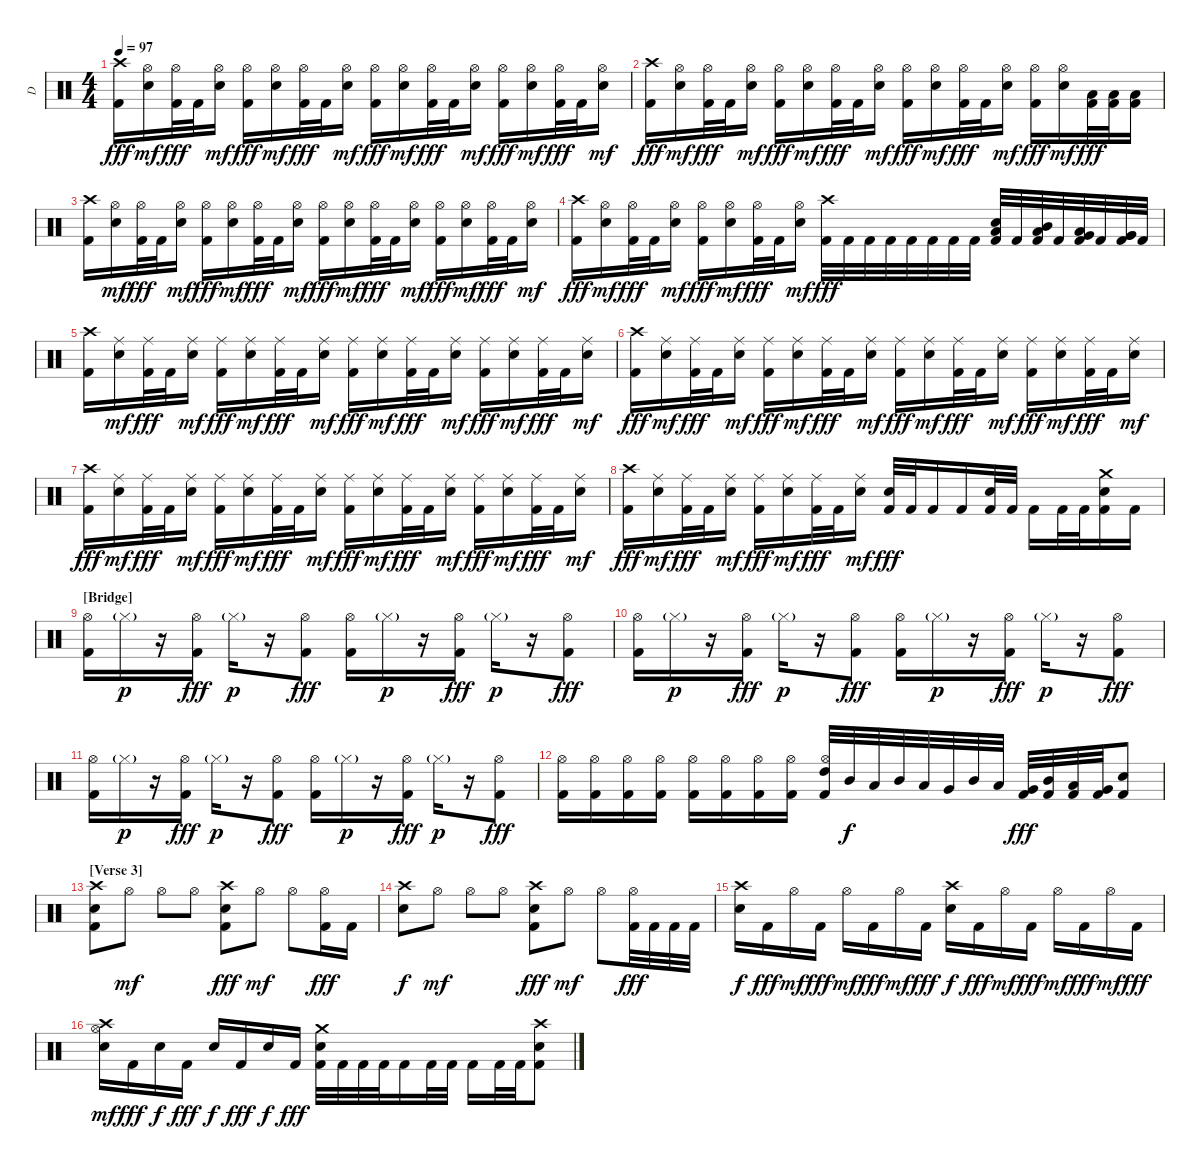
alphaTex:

\track ("D" "D") {instrument percussion}
\staff {score}
\articulation defaults
\ts (4 4)
\tempo 97
\clef neutral
\ks c
("Crash high (hit)" "Kick (hit) 2").16{dy fff} ("Hi-Hat (open)" "Snare (hit) 2").16{dy mf} ("Hi-Hat (open)" "Kick (hit) 2").32{dy fff} "Kick (hit) 2".32 ("Hi-Hat (open)" "Snare (hit) 2").16{dy mf} ("Hi-Hat (open)" "Kick (hit) 2").16{dy fff} ("Hi-Hat (open)" "Snare (hit) 2").16{dy mf} ("Hi-Hat (open)" "Kick (hit) 2").32{dy fff} "Kick (hit) 2".32 ("Hi-Hat (open)" "Snare (hit) 2").16{dy mf} ("Hi-Hat (open)" "Kick (hit) 2").16{dy fff} ("Hi-Hat (open)" "Snare (hit) 2").16{dy mf} ("Hi-Hat (open)" "Kick (hit) 2").32{dy fff} "Kick (hit) 2".32 ("Hi-Hat (open)" "Snare (hit) 2").16{dy mf} ("Hi-Hat (open)" "Kick (hit) 2").16{dy fff} ("Hi-Hat (open)" "Snare (hit) 2").16{dy mf} ("Hi-Hat (open)" "Kick (hit) 2").32{dy fff} "Kick (hit) 2".32 ("Hi-Hat (open)" "Snare (hit) 2").16{dy mf} |
("Crash high (hit)" "Kick (hit) 2").16{dy fff} ("Hi-Hat (open)" "Snare (hit) 2").16{dy mf} ("Hi-Hat (open)" "Kick (hit) 2").32{dy fff} "Kick (hit) 2".32 ("Hi-Hat (open)" "Snare (hit) 2").16{dy mf} ("Hi-Hat (open)" "Kick (hit) 2").16{dy fff} ("Hi-Hat (open)" "Snare (hit) 2").16{dy mf} ("Hi-Hat (open)" "Kick (hit) 2").32{dy fff} "Kick (hit) 2".32 ("Hi-Hat (open)" "Snare (hit) 2").16{dy mf} ("Hi-Hat (open)" "Kick (hit) 2").16{dy fff} ("Hi-Hat (open)" "Snare (hit) 2").16{dy mf} ("Hi-Hat (open)" "Kick (hit) 2").32{dy fff} "Kick (hit) 2".32 ("Hi-Hat (open)" "Snare (hit) 2").16{dy mf} ("Hi-Hat (open)" "Kick (hit) 2").16{dy fff} ("Hi-Hat (open)" "Snare (hit) 2").16{dy mf} ("Low Tom (hit)" "Kick (hit) 2").32{dy fff} ("Low Tom (hit)" "Kick (hit) 2").32 ("Low Tom (hit)" "Kick (hit) 2").16 |
("Crash high (hit)" "Kick (hit) 2").16 ("Hi-Hat (open)" "Snare (hit) 2").16{dy mf} ("Hi-Hat (open)" "Kick (hit) 2").32{dy fff} "Kick (hit) 2".32 ("Hi-Hat (open)" "Snare (hit) 2").16{dy mf} ("Hi-Hat (open)" "Kick (hit) 2").16{dy fff} ("Hi-Hat (open)" "Snare (hit) 2").16{dy mf} ("Hi-Hat (open)" "Kick (hit) 2").32{dy fff} "Kick (hit) 2".32 ("Hi-Hat (open)" "Snare (hit) 2").16{dy mf} ("Hi-Hat (open)" "Kick (hit) 2").16{dy fff} ("Hi-Hat (open)" "Snare (hit) 2").16{dy mf} ("Hi-Hat (open)" "Kick (hit) 2").32{dy fff} "Kick (hit) 2".32 ("Hi-Hat (open)" "Snare (hit) 2").16{dy mf} ("Hi-Hat (open)" "Kick (hit) 2").16{dy fff} ("Hi-Hat (open)" "Snare (hit) 2").16{dy mf} ("Hi-Hat (open)" "Kick (hit) 2").32{dy fff} "Kick (hit) 2".32 ("Hi-Hat (open)" "Snare (hit) 2").16{dy mf} |
("Crash high (hit)" "Kick (hit) 2").16{dy fff} ("Hi-Hat (open)" "Snare (hit) 2").16{dy mf} ("Hi-Hat (open)" "Kick (hit) 2").32{dy fff} "Kick (hit) 2".32 ("Hi-Hat (open)" "Snare (hit) 2").16{dy mf} ("Hi-Hat (open)" "Kick (hit) 2").16{dy fff} ("Hi-Hat (open)" "Snare (hit) 2").16{dy mf} ("Hi-Hat (open)" "Kick (hit) 2").32{dy fff} "Kick (hit) 2".32 ("Hi-Hat (open)" "Snare (hit) 2").16{dy mf} ("Crash high (hit)" "Kick (hit) 2").32{dy fff} "Kick (hit) 2".32 "Kick (hit) 2".32 "Kick (hit) 2".32 "Kick (hit) 2".32 "Kick (hit) 2".32 "Kick (hit) 2".32 "Kick (hit) 2".32 ("Low Tom (hit)" "Snare (hit) 2" "Kick (hit) 2").32 "Kick (hit) 2".32 ("Low Tom (hit)" "Mid Tom (hit)" "Kick (hit) 2").32 "Kick (hit) 2".32 ("Very Low Tom (hit)" "Low Tom (hit)" "Kick (hit) 2").32 "Kick (hit) 2".32 ("Very Low Tom (hit)" "Very Low Tom (hit)" "Kick (hit) 2").32 "Kick (hit) 2".32 |
\section ("" "")
("Crash high (hit)" "Kick (hit) 2").16 ("Ride (middle)" "Snare (hit) 2").16{dy mf} ("Ride (middle)" "Kick (hit) 2").32{dy fff} "Kick (hit) 2".32 ("Ride (middle)" "Snare (hit) 2").16{dy mf} ("Ride (middle)" "Kick (hit) 2").16{dy fff} ("Ride (middle)" "Snare (hit) 2").16{dy mf} ("Ride (middle)" "Kick (hit) 2").32{dy fff} "Kick (hit) 2".32 ("Ride (middle)" "Snare (hit) 2").16{dy mf} ("Ride (middle)" "Kick (hit) 2").16{dy fff} ("Ride (middle)" "Snare (hit) 2").16{dy mf} ("Ride (middle)" "Kick (hit) 2").32{dy fff} "Kick (hit) 2".32 ("Ride (middle)" "Snare (hit) 2").16{dy mf} ("Ride (middle)" "Kick (hit) 2").16{dy fff} ("Ride (middle)" "Snare (hit) 2").16{dy mf} ("Ride (middle)" "Kick (hit) 2").32{dy fff} "Kick (hit) 2".32 ("Ride (middle)" "Snare (hit) 2").16{dy mf} |
("Crash high (hit)" "Kick (hit) 2").16{dy fff} ("Ride (middle)" "Snare (hit) 2").16{dy mf} ("Ride (middle)" "Kick (hit) 2").32{dy fff} "Kick (hit) 2".32 ("Ride (middle)" "Snare (hit) 2").16{dy mf} ("Ride (middle)" "Kick (hit) 2").16{dy fff} ("Ride (middle)" "Snare (hit) 2").16{dy mf} ("Ride (middle)" "Kick (hit) 2").32{dy fff} "Kick (hit) 2".32 ("Ride (middle)" "Snare (hit) 2").16{dy mf} ("Ride (middle)" "Kick (hit) 2").16{dy fff} ("Ride (middle)" "Snare (hit) 2").16{dy mf} ("Ride (middle)" "Kick (hit) 2").32{dy fff} "Kick (hit) 2".32 ("Ride (middle)" "Snare (hit) 2").16{dy mf} ("Ride (middle)" "Kick (hit) 2").16{dy fff} ("Ride (middle)" "Snare (hit) 2").16{dy mf} ("Ride (middle)" "Kick (hit) 2").32{dy fff} "Kick (hit) 2".32 ("Ride (middle)" "Snare (hit) 2").16{dy mf} |
("Crash high (hit)" "Kick (hit) 2").16{dy fff} ("Ride (middle)" "Snare (hit) 2").16{dy mf} ("Ride (middle)" "Kick (hit) 2").32{dy fff} "Kick (hit) 2".32 ("Ride (middle)" "Snare (hit) 2").16{dy mf} ("Ride (middle)" "Kick (hit) 2").16{dy fff} ("Ride (middle)" "Snare (hit) 2").16{dy mf} ("Ride (middle)" "Kick (hit) 2").32{dy fff} "Kick (hit) 2".32 ("Ride (middle)" "Snare (hit) 2").16{dy mf} ("Ride (middle)" "Kick (hit) 2").16{dy fff} ("Ride (middle)" "Snare (hit) 2").16{dy mf} ("Ride (middle)" "Kick (hit) 2").32{dy fff} "Kick (hit) 2".32 ("Ride (middle)" "Snare (hit) 2").16{dy mf} ("Ride (middle)" "Kick (hit) 2").16{dy fff} ("Ride (middle)" "Snare (hit) 2").16{dy mf} ("Ride (middle)" "Kick (hit) 2").32{dy fff} "Kick (hit) 2".32 ("Ride (middle)" "Snare (hit) 2").16{dy mf} |
("Crash high (hit)" "Kick (hit) 2").16{dy fff} ("Ride (middle)" "Snare (hit) 2").16{dy mf} ("Ride (middle)" "Kick (hit) 2").32{dy fff} "Kick (hit) 2".32 ("Ride (middle)" "Snare (hit) 2").16{dy mf} ("Ride (middle)" "Kick (hit) 2").16{dy fff} ("Ride (middle)" "Snare (hit) 2").16{dy mf} ("Ride (middle)" "Kick (hit) 2").32{dy fff} "Kick (hit) 2".32 ("Ride (middle)" "Snare (hit) 2").16{dy mf} ("Snare (hit) 2" "Kick (hit) 2").32{dy fff} "Kick (hit) 2".32 "Kick (hit) 2".16 "Kick (hit) 2".16 ("Snare (hit) 2" "Kick (hit) 2").32 "Kick (hit) 2".32 "Kick (hit) 2".16 "Kick (hit) 2".32 "Kick (hit) 2".32 ("Crash medium (hit)" "Snare (hit) 2" "Kick (hit) 2").16 "Kick (hit) 2".16 |
\section ("" "[Bridge]")
("Hi-Hat (open)" "Kick (hit) 2").16 "Hi-Hat (closed)"{g}.16{dy p} r.16 ("Hi-Hat (open)" "Kick (hit) 2").16{dy fff} "Hi-Hat (closed)"{g}.16{dy p} r.16 ("Hi-Hat (open)" "Kick (hit) 2").8{dy fff} ("Hi-Hat (open)" "Kick (hit) 2").16 "Hi-Hat (closed)"{g}.16{dy p} r.16 ("Hi-Hat (open)" "Kick (hit) 2").16{dy fff} "Hi-Hat (closed)"{g}.16{dy p} r.16 ("Hi-Hat (open)" "Kick (hit) 2").8{dy fff} |
("Hi-Hat (open)" "Kick (hit) 2").16 "Hi-Hat (closed)"{g}.16{dy p} r.16 ("Hi-Hat (open)" "Kick (hit) 2").16{dy fff} "Hi-Hat (closed)"{g}.16{dy p} r.16 ("Hi-Hat (open)" "Kick (hit) 2").8{dy fff} ("Hi-Hat (open)" "Kick (hit) 2").16 "Hi-Hat (closed)"{g}.16{dy p} r.16 ("Hi-Hat (open)" "Kick (hit) 2").16{dy fff} "Hi-Hat (closed)"{g}.16{dy p} r.16 ("Hi-Hat (open)" "Kick (hit) 2").8{dy fff} |
("Hi-Hat (open)" "Kick (hit) 2").16 "Hi-Hat (closed)"{g}.16{dy p} r.16 ("Hi-Hat (open)" "Kick (hit) 2").16{dy fff} "Hi-Hat (closed)"{g}.16{dy p} r.16 ("Hi-Hat (open)" "Kick (hit) 2").8{dy fff} ("Hi-Hat (open)" "Kick (hit) 2").16 "Hi-Hat (closed)"{g}.16{dy p} r.16 ("Hi-Hat (open)" "Kick (hit) 2").16{dy fff} "Hi-Hat (closed)"{g}.16{dy p} r.16 ("Hi-Hat (open)" "Kick (hit) 2").8{dy fff} |
("Hi-Hat (open)" "Kick (hit) 2").16 ("Hi-Hat (open)" "Kick (hit) 2").16 ("Hi-Hat (open)" "Kick (hit) 2").16 ("Hi-Hat (open)" "Kick (hit) 2").16 ("Hi-Hat (open)" "Kick (hit) 2").16 ("Hi-Hat (open)" "Kick (hit) 2").16 ("Hi-Hat (open)" "Kick (hit) 2").16 ("Hi-Hat (open)" "Kick (hit) 2").16 ("Hi-Hat (open)" "High Tom (hit)" "Kick (hit) 2").32 "Mid Tom (hit)".32{dy f} "Low Tom (hit)".32 "Mid Tom (hit)".32 "Low Tom (hit)".32 "Very Low Tom (hit)".32 "Mid Tom (hit)".32 "Low Tom (hit)".32 ("Very Low Tom (hit)" "Kick (hit) 2").32{dy fff} ("Mid Tom (hit)" "Kick (hit) 2").32 ("Low Tom (hit)" "Kick (hit) 2").32 ("Very Low Tom (hit)" "Kick (hit) 2").32 ("Snare (hit) 2" "Kick (hit) 2").8 |
\section ("" "[Verse 3]")
("Crash high (hit)" "Snare (hit) 2" "Kick (hit) 2").8 "Hi-Hat (open)".8{dy mf} "Hi-Hat (open)".8 "Hi-Hat (open)".8 ("Crash high (hit)" "Snare (hit) 2" "Kick (hit) 2").8{dy fff} "Hi-Hat (open)".8{dy mf} "Hi-Hat (open)".8 ("Hi-Hat (open)" "Kick (hit) 2").16{dy fff} "Kick (hit) 2".16 |
("Crash high (hit)" "Snare (hit) 2").8{dy f} "Hi-Hat (open)".8{dy mf} "Hi-Hat (open)".8 "Hi-Hat (open)".8 ("Crash high (hit)" "Snare (hit) 2" "Kick (hit) 2").8{dy fff} "Hi-Hat (open)".8{dy mf} "Hi-Hat (open)".8 ("Hi-Hat (open)" "Kick (hit) 2").32{dy fff} "Kick (hit) 2".32 "Kick (hit) 2".32 "Kick (hit) 2".32 |
("Crash high (hit)" "Snare (hit) 2").16{dy f} "Kick (hit) 2".16{dy fff} "Hi-Hat (open)".16{dy mf} "Kick (hit) 2".16{dy fff} "Hi-Hat (open)".16{dy mf} "Kick (hit) 2".16{dy fff} "Hi-Hat (open)".16{dy mf} "Kick (hit) 2".16{dy fff} ("Crash high (hit)" "Snare (hit) 2").16{dy f} "Kick (hit) 2".16{dy fff} "Hi-Hat (open)".16{dy mf} "Kick (hit) 2".16{dy fff} "Hi-Hat (open)".16{dy mf} "Kick (hit) 2".16{dy fff} "Hi-Hat (open)".16{dy mf} "Kick (hit) 2".16{dy fff} |
("Crash high (hit)" "Hi-Hat (open)" "Snare (hit) 2").16{dy mf} "Kick (hit) 2".16{dy fff} "Snare (hit) 2".16{dy f} "Kick (hit) 2".16{dy fff} "Snare (hit) 2".16{dy f} "Kick (hit) 2".16{dy fff} "Snare (hit) 2".16{dy f} "Kick (hit) 2".16{dy fff} ("Crash medium (hit)" "Snare (hit) 2" "Kick (hit) 2").32 "Kick (hit) 2".32 "Kick (hit) 2".32 "Kick (hit) 2".32 "Kick (hit) 2".16 "Kick (hit) 2".32 "Kick (hit) 2".32 "Kick (hit) 2".16 "Kick (hit) 2".32 "Kick (hit) 2".32 ("Crash high (hit)" "Snare (hit) 2" "Kick (hit) 2").8
